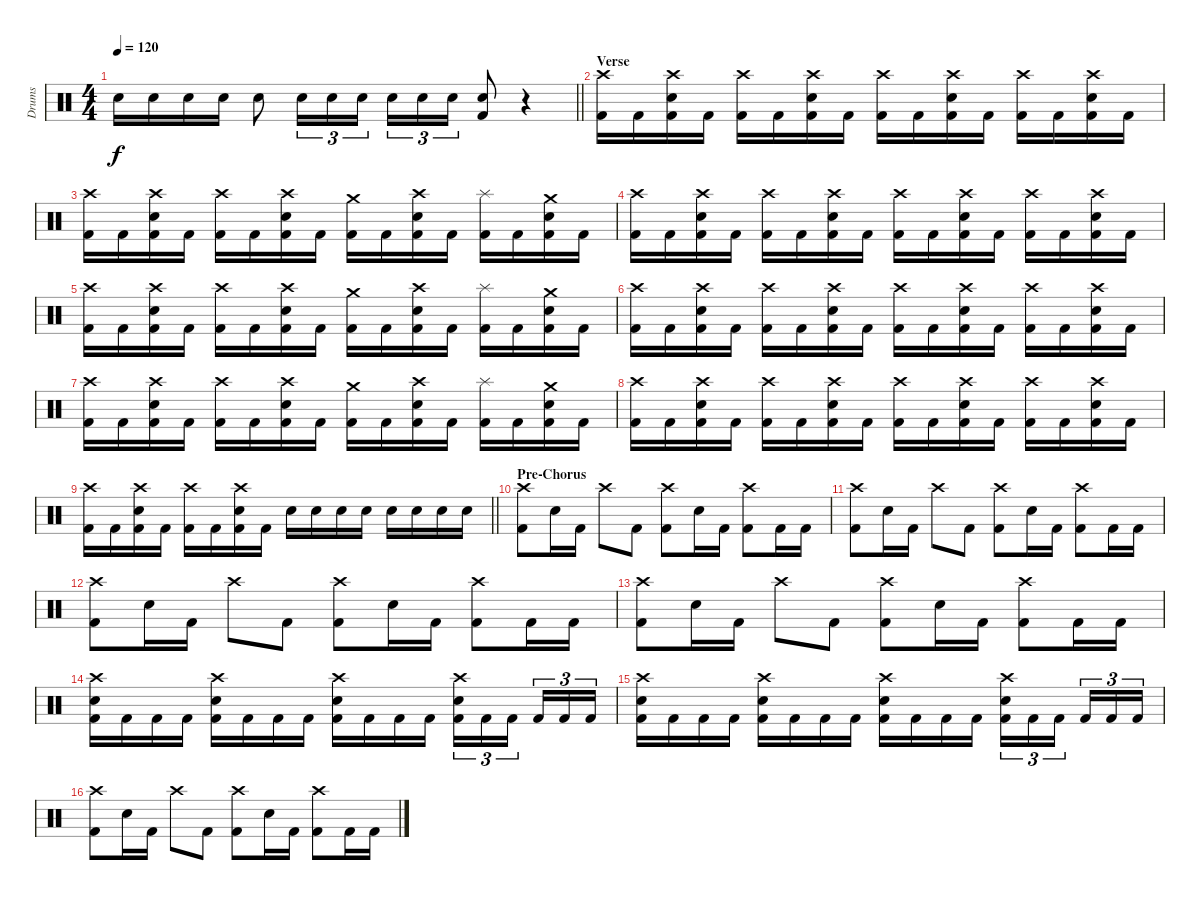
\track ("Drums" "Drums") {instrument percussion}
\staff {score}
\articulation defaults
\ts (4 4)
\tempo 120
\clef neutral
\barLineRight lightlight
\ks c "Electric Snare (hit)".16{dy f} "Electric Snare (hit)".16 "Electric Snare (hit)".16 "Electric Snare (hit)".16 "Electric Snare (hit)".8 "Electric Snare (hit)".16{tu (3 2)} "Electric Snare (hit)".16{tu (3 2)} "Electric Snare (hit)".16{tu (3 2)} "Electric Snare (hit)".16{tu (3 2)} "Electric Snare (hit)".16{tu (3 2)} "Electric Snare (hit)".16{tu (3 2)}
("Electric Snare (hit)" "Kick (hit) 2").8 r.4 |
\section ("" "Verse")
("Crash high (hit)" "Kick (hit) 2").16 "Kick (hit) 2".16 ("Crash high (hit)" "Electric Snare (hit)" "Kick (hit) 2").16 "Kick (hit) 2".16 ("Crash high (hit)" "Kick (hit) 2").16 "Kick (hit) 2".16 ("Crash high (hit)" "Electric Snare (hit)" "Kick (hit) 2").16 "Kick (hit) 2".16 ("Crash high (hit)" "Kick (hit) 2").16 "Kick (hit) 2".16 ("Crash high (hit)" "Electric Snare (hit)" "Kick (hit) 2").16 "Kick (hit) 2".16 ("Crash high (hit)" "Kick (hit) 2").16 "Kick (hit) 2".16 ("Crash high (hit)" "Electric Snare (hit)" "Kick (hit) 2").16 "Kick (hit) 2".16 |
("Crash high (hit)" "Kick (hit) 2").16 "Kick (hit) 2".16 ("Crash high (hit)" "Electric Snare (hit)" "Kick (hit) 2").16 "Kick (hit) 2".16 ("Crash high (hit)" "Kick (hit) 2").16 "Kick (hit) 2".16 ("Crash high (hit)" "Electric Snare (hit)" "Kick (hit) 2").16 "Kick (hit) 2".16 ("Crash medium (hit)" "Kick (hit) 2").16 "Kick (hit) 2".16 ("Crash high (hit)" "Electric Snare (hit)" "Kick (hit) 2").16 "Kick (hit) 2".16 ("Splash (hit)" "Kick (hit) 2").16 "Kick (hit) 2".16 ("Crash medium (hit)" "Electric Snare (hit)" "Kick (hit) 2").16 "Kick (hit) 2".16 |
("Crash high (hit)" "Kick (hit) 2").16 "Kick (hit) 2".16 ("Crash high (hit)" "Electric Snare (hit)" "Kick (hit) 2").16 "Kick (hit) 2".16 ("Crash high (hit)" "Kick (hit) 2").16 "Kick (hit) 2".16 ("Crash high (hit)" "Electric Snare (hit)" "Kick (hit) 2").16 "Kick (hit) 2".16 ("Crash high (hit)" "Kick (hit) 2").16 "Kick (hit) 2".16 ("Crash high (hit)" "Electric Snare (hit)" "Kick (hit) 2").16 "Kick (hit) 2".16 ("Crash high (hit)" "Kick (hit) 2").16 "Kick (hit) 2".16 ("Crash high (hit)" "Electric Snare (hit)" "Kick (hit) 2").16 "Kick (hit) 2".16 |
("Crash high (hit)" "Kick (hit) 2").16 "Kick (hit) 2".16 ("Crash high (hit)" "Electric Snare (hit)" "Kick (hit) 2").16 "Kick (hit) 2".16 ("Crash high (hit)" "Kick (hit) 2").16 "Kick (hit) 2".16 ("Crash high (hit)" "Electric Snare (hit)" "Kick (hit) 2").16 "Kick (hit) 2".16 ("Crash medium (hit)" "Kick (hit) 2").16 "Kick (hit) 2".16 ("Crash high (hit)" "Electric Snare (hit)" "Kick (hit) 2").16 "Kick (hit) 2".16 ("Splash (hit)" "Kick (hit) 2").16 "Kick (hit) 2".16 ("Crash medium (hit)" "Electric Snare (hit)" "Kick (hit) 2").16 "Kick (hit) 2".16 |
("Crash high (hit)" "Kick (hit) 2").16 "Kick (hit) 2".16 ("Crash high (hit)" "Electric Snare (hit)" "Kick (hit) 2").16 "Kick (hit) 2".16 ("Crash high (hit)" "Kick (hit) 2").16 "Kick (hit) 2".16 ("Crash high (hit)" "Electric Snare (hit)" "Kick (hit) 2").16 "Kick (hit) 2".16 ("Crash high (hit)" "Kick (hit) 2").16 "Kick (hit) 2".16 ("Crash high (hit)" "Electric Snare (hit)" "Kick (hit) 2").16 "Kick (hit) 2".16 ("Crash high (hit)" "Kick (hit) 2").16 "Kick (hit) 2".16 ("Crash high (hit)" "Electric Snare (hit)" "Kick (hit) 2").16 "Kick (hit) 2".16 |
("Crash high (hit)" "Kick (hit) 2").16 "Kick (hit) 2".16 ("Crash high (hit)" "Electric Snare (hit)" "Kick (hit) 2").16 "Kick (hit) 2".16 ("Crash high (hit)" "Kick (hit) 2").16 "Kick (hit) 2".16 ("Crash high (hit)" "Electric Snare (hit)" "Kick (hit) 2").16 "Kick (hit) 2".16 ("Crash medium (hit)" "Kick (hit) 2").16 "Kick (hit) 2".16 ("Crash high (hit)" "Electric Snare (hit)" "Kick (hit) 2").16 "Kick (hit) 2".16 ("Splash (hit)" "Kick (hit) 2").16 "Kick (hit) 2".16 ("Crash medium (hit)" "Electric Snare (hit)" "Kick (hit) 2").16 "Kick (hit) 2".16 |
("Crash high (hit)" "Kick (hit) 2").16 "Kick (hit) 2".16 ("Crash high (hit)" "Electric Snare (hit)" "Kick (hit) 2").16 "Kick (hit) 2".16 ("Crash high (hit)" "Kick (hit) 2").16 "Kick (hit) 2".16 ("Crash high (hit)" "Electric Snare (hit)" "Kick (hit) 2").16 "Kick (hit) 2".16 ("Crash high (hit)" "Kick (hit) 2").16 "Kick (hit) 2".16 ("Crash high (hit)" "Electric Snare (hit)" "Kick (hit) 2").16 "Kick (hit) 2".16 ("Crash high (hit)" "Kick (hit) 2").16 "Kick (hit) 2".16 ("Crash high (hit)" "Electric Snare (hit)" "Kick (hit) 2").16 "Kick (hit) 2".16 |
\barLineRight lightlight
("Crash high (hit)" "Kick (hit) 2").16 "Kick (hit) 2".16 ("Crash high (hit)" "Electric Snare (hit)" "Kick (hit) 2").16 "Kick (hit) 2".16 ("Crash high (hit)" "Kick (hit) 2").16 "Kick (hit) 2".16 ("Crash high (hit)" "Electric Snare (hit)" "Kick (hit) 2").16 "Kick (hit) 2".16 "Electric Snare (hit)".16 "Electric Snare (hit)".16 "Electric Snare (hit)".16 "Electric Snare (hit)".16 "Electric Snare (hit)".16 "Electric Snare (hit)".16 "Electric Snare (hit)".16 "Electric Snare (hit)".16 |
\section ("" "Pre-Chorus")
("Crash high (hit)" "Kick (hit) 2").8 "Electric Snare (hit)".16 "Kick (hit) 2".16 "Crash high (hit)".8 "Kick (hit) 2".8 ("Crash high (hit)" "Kick (hit) 2").8 "Electric Snare (hit)".16 "Kick (hit) 2".16 ("Crash high (hit)" "Kick (hit) 2").8 "Kick (hit) 2".16 "Kick (hit) 2".16 |
("Crash high (hit)" "Kick (hit) 2").8 "Electric Snare (hit)".16 "Kick (hit) 2".16 "Crash high (hit)".8 "Kick (hit) 2".8 ("Crash high (hit)" "Kick (hit) 2").8 "Electric Snare (hit)".16 "Kick (hit) 2".16 ("Crash high (hit)" "Kick (hit) 2").8 "Kick (hit) 2".16 "Kick (hit) 2".16 |
("Crash high (hit)" "Kick (hit) 2").8 "Electric Snare (hit)".16 "Kick (hit) 2".16 "Crash high (hit)".8 "Kick (hit) 2".8 ("Crash high (hit)" "Kick (hit) 2").8 "Electric Snare (hit)".16 "Kick (hit) 2".16 ("Crash high (hit)" "Kick (hit) 2").8 "Kick (hit) 2".16 "Kick (hit) 2".16 |
("Crash high (hit)" "Kick (hit) 2").8 "Electric Snare (hit)".16 "Kick (hit) 2".16 "Crash high (hit)".8 "Kick (hit) 2".8 ("Crash high (hit)" "Kick (hit) 2").8 "Electric Snare (hit)".16 "Kick (hit) 2".16 ("Crash high (hit)" "Kick (hit) 2").8 "Kick (hit) 2".16 "Kick (hit) 2".16 |
("Crash high (hit)" "Electric Snare (hit)" "Kick (hit) 2").16 "Kick (hit) 2".16 "Kick (hit) 2".16 "Kick (hit) 2".16 ("Crash high (hit)" "Electric Snare (hit)" "Kick (hit) 2").16 "Kick (hit) 2".16 "Kick (hit) 2".16 "Kick (hit) 2".16 ("Crash high (hit)" "Electric Snare (hit)" "Kick (hit) 2").16 "Kick (hit) 2".16 "Kick (hit) 2".16 "Kick (hit) 2".16 ("Crash high (hit)" "Electric Snare (hit)" "Kick (hit) 2").16{tu (3 2)} "Kick (hit) 2".16{tu (3 2)} "Kick (hit) 2".16{tu (3 2)} "Kick (hit) 2".16{tu (3 2)} "Kick (hit) 2".16{tu (3 2)} "Kick (hit) 2".16{tu (3 2)} |
("Crash high (hit)" "Electric Snare (hit)" "Kick (hit) 2").16 "Kick (hit) 2".16 "Kick (hit) 2".16 "Kick (hit) 2".16 ("Crash high (hit)" "Electric Snare (hit)" "Kick (hit) 2").16 "Kick (hit) 2".16 "Kick (hit) 2".16 "Kick (hit) 2".16 ("Crash high (hit)" "Electric Snare (hit)" "Kick (hit) 2").16 "Kick (hit) 2".16 "Kick (hit) 2".16 "Kick (hit) 2".16 ("Crash high (hit)" "Electric Snare (hit)" "Kick (hit) 2").16{tu (3 2)} "Kick (hit) 2".16{tu (3 2)} "Kick (hit) 2".16{tu (3 2)} "Kick (hit) 2".16{tu (3 2)} "Kick (hit) 2".16{tu (3 2)} "Kick (hit) 2".16{tu (3 2)} |
("Crash high (hit)" "Kick (hit) 2").8 "Electric Snare (hit)".16 "Kick (hit) 2".16 "Crash high (hit)".8 "Kick (hit) 2".8 ("Crash high (hit)" "Kick (hit) 2").8 "Electric Snare (hit)".16 "Kick (hit) 2".16 ("Crash high (hit)" "Kick (hit) 2").8 "Kick (hit) 2".16 "Kick (hit) 2".16
